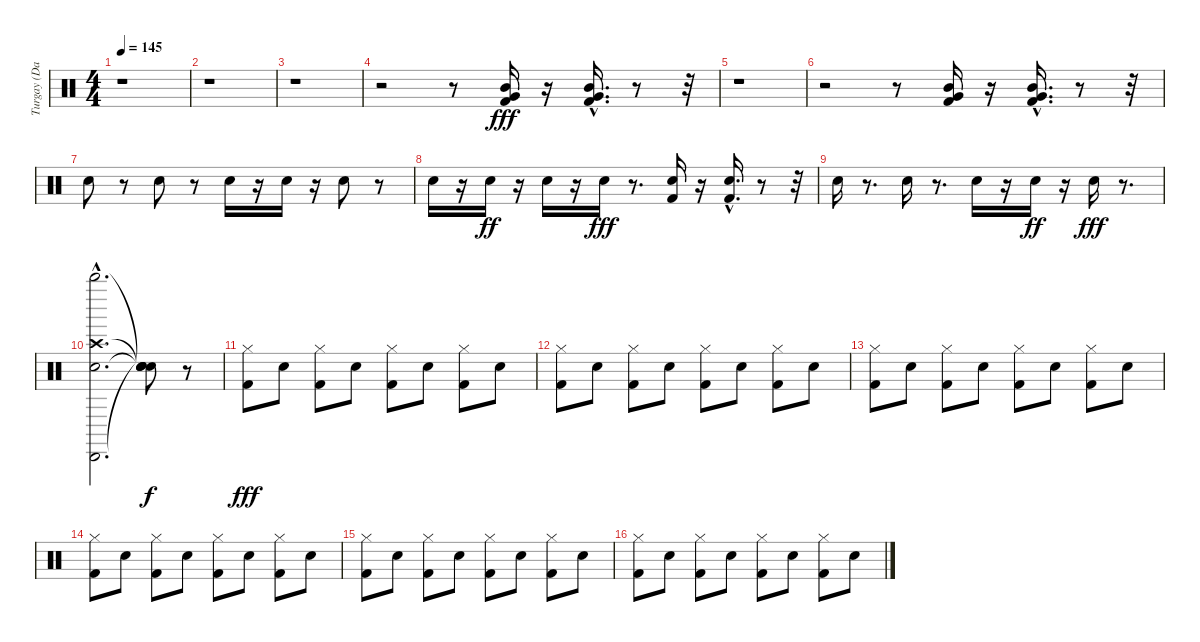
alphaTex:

\track ("Turgay (Davul)" "Turgay (Da") {instrument percussion}
\staff {score}
\articulation defaults
\ts (4 4)
\tempo 145
\clef neutral
\ks c
r.1{dy fff} |
r.1 |
r.1 |
r.2 r.8 ("Kick (hit) 2" "Mid Tom (hit)" "Very Low Tom (hit)").16 r.16 ("Kick (hit) 2" "Very Low Tom (hit)"{hac} "Mid Tom (hit)"{hac}).16{d} r.8 r.32 |
r.1 |
r.2 r.8 ("Mid Tom (hit)" "Very Low Tom (hit)" "Kick (hit) 2").16 r.16 ("Kick (hit) 2" "Mid Tom (hit)" "Very Low Tom (hit)"{hac}).16{d} r.8 r.32 |
"Electric Snare (hit)".8 r.8 "Electric Snare (hit)".8 r.8 "Electric Snare (hit)".16 r.16 "Electric Snare (hit)".16 r.16 "Electric Snare (hit)".8 r.8 |
"Electric Snare (hit)".16 r.16 "Electric Snare (hit)".16{dy ff} r.16 "Electric Snare (hit)".16 r.16 "Electric Snare (hit)".16{dy fff} r.8{d} ("Kick (hit) 2" "Electric Snare (hit)").16 r.16 ("Kick (hit) 2"{hac} "Electric Snare (hit)").16{d} r.8 r.32 |
"Electric Snare (hit)".16 r.8{d} "Electric Snare (hit)".16 r.8{d} "Electric Snare (hit)".16 r.16 "Electric Snare (hit)".16{dy ff} r.16 "Electric Snare (hit)".16{dy fff} r.8{d} |
("Snare (hit) 2"{hac} "Crash high (hit)"{hac} "Cabasa (hit)"{hac} "Whistle high (hit)"{hac}).2{d} ("Snare (hit)"{t} "Snare (hit)"{t} "Snare (hit)"{t} "Snare (hit)"{t}).8{dy f} r.8 |
("Kick (hit) 2" "Hi-Hat (closed)").8{dy fff} "Electric Snare (hit)".8 ("Kick (hit) 2" "Hi-Hat (closed)").8 "Electric Snare (hit)".8 ("Kick (hit) 2" "Hi-Hat (closed)").8 "Electric Snare (hit)".8 ("Kick (hit) 2" "Hi-Hat (closed)").8 "Electric Snare (hit)".8 |
("Hi-Hat (closed)" "Kick (hit) 2").8 "Electric Snare (hit)".8 ("Hi-Hat (closed)" "Kick (hit) 2").8 "Electric Snare (hit)".8 ("Hi-Hat (closed)" "Kick (hit) 2").8 "Electric Snare (hit)".8 ("Hi-Hat (closed)" "Kick (hit) 2").8 "Electric Snare (hit)".8 |
("Hi-Hat (closed)" "Kick (hit) 2").8 "Electric Snare (hit)".8 ("Hi-Hat (closed)" "Kick (hit) 2").8 "Electric Snare (hit)".8 ("Hi-Hat (closed)" "Kick (hit) 2").8 "Electric Snare (hit)".8 ("Hi-Hat (closed)" "Kick (hit) 2").8 "Electric Snare (hit)".8 |
("Kick (hit) 2" "Hi-Hat (closed)").8 "Electric Snare (hit)".8 ("Kick (hit) 2" "Hi-Hat (closed)").8 "Electric Snare (hit)".8 ("Kick (hit) 2" "Hi-Hat (closed)").8 "Electric Snare (hit)".8 ("Kick (hit) 2" "Hi-Hat (closed)").8 "Electric Snare (hit)".8 |
("Kick (hit) 2" "Hi-Hat (closed)").8 "Electric Snare (hit)".8 ("Kick (hit) 2" "Hi-Hat (closed)").8 "Electric Snare (hit)".8 ("Kick (hit) 2" "Hi-Hat (closed)").8 "Electric Snare (hit)".8 ("Kick (hit) 2" "Hi-Hat (closed)").8 "Electric Snare (hit)".8 |
("Hi-Hat (closed)" "Kick (hit) 2").8 "Electric Snare (hit)".8 ("Hi-Hat (closed)" "Kick (hit) 2").8 "Electric Snare (hit)".8 ("Hi-Hat (closed)" "Kick (hit) 2").8 "Electric Snare (hit)".8 ("Hi-Hat (closed)" "Kick (hit) 2").8 "Electric Snare (hit)".8
